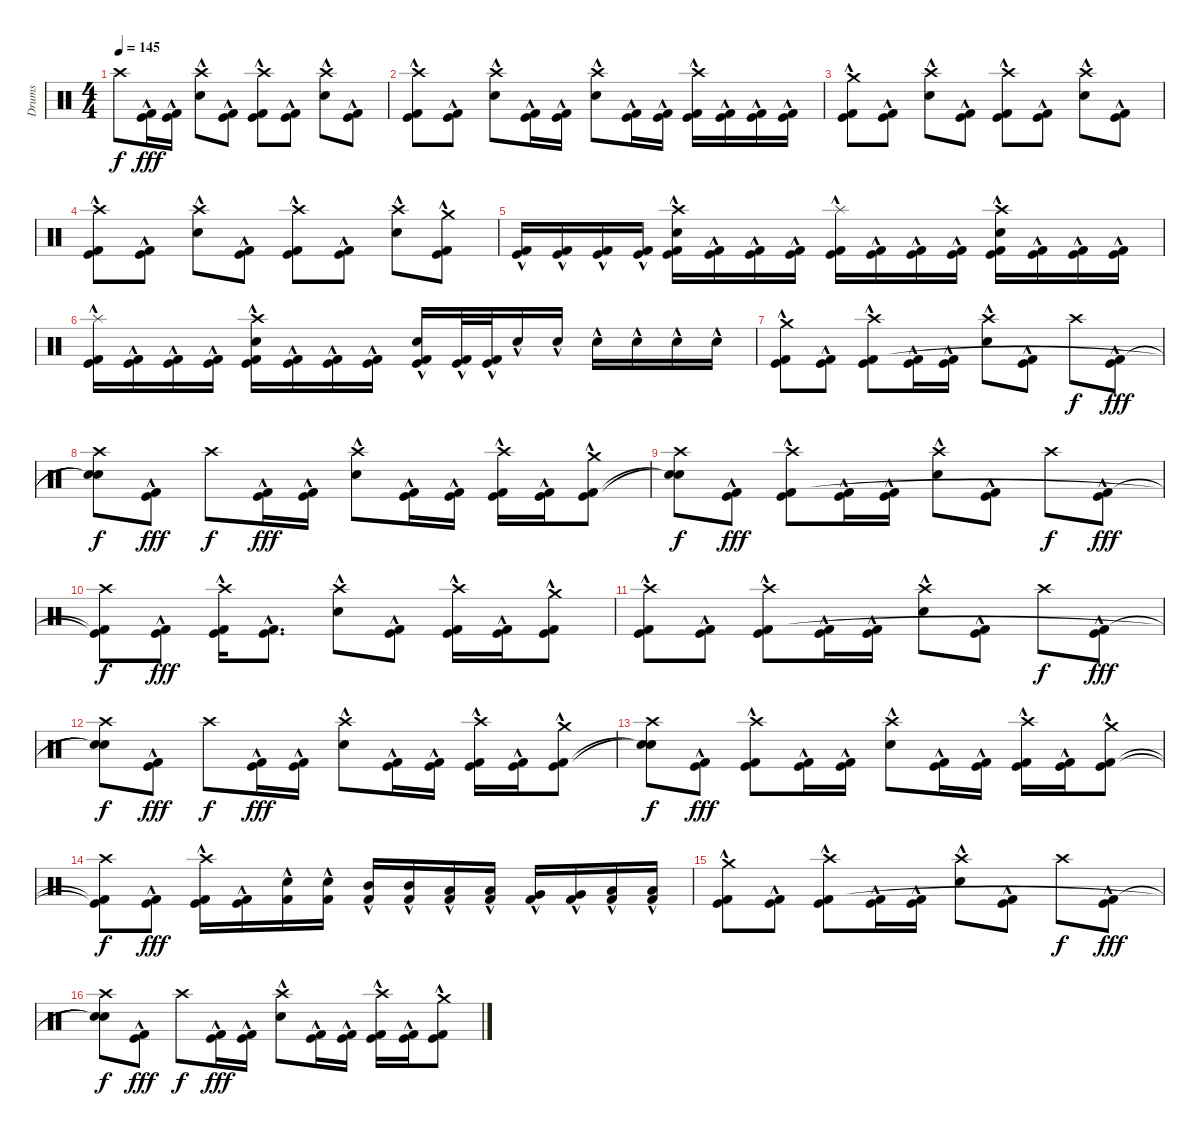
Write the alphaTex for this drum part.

\track ("Drums" "Drums") {instrument percussion}
\staff {score}
\articulation defaults
\ts (4 4)
\tempo 145
\clef neutral
\ks c "Crash high (hit)".8{dy f}
("Kick (hit)"{hac} "Kick (hit) 2"{hac}).16{dy fff} ("Kick (hit)"{hac} "Kick (hit) 2"{hac}).16 ("Crash high (hit)" "Electric Snare (hit)"{hac}).8 ("Kick (hit)"{hac} "Kick (hit) 2"{hac}).8 ("Crash high (hit)" "Kick (hit)"{hac} "Kick (hit) 2"{hac}).8 ("Kick (hit)"{hac} "Kick (hit) 2"{hac}).8 ("Crash high (hit)" "Electric Snare (hit)"{hac}).8 ("Kick (hit)"{hac} "Kick (hit) 2"{hac}).8 |
("Crash high (hit)" "Kick (hit)"{hac} "Kick (hit) 2"{hac}).8 ("Kick (hit)"{hac} "Kick (hit) 2"{hac}).8 ("Crash high (hit)" "Electric Snare (hit)"{hac}).8 ("Kick (hit)"{hac} "Kick (hit) 2"{hac}).16 ("Kick (hit)"{hac} "Kick (hit) 2"{hac}).16 ("Crash high (hit)" "Electric Snare (hit)"{hac}).8 ("Kick (hit)"{hac} "Kick (hit) 2"{hac}).16 ("Kick (hit)"{hac} "Kick (hit) 2"{hac}).16 ("Crash high (hit)" "Kick (hit)"{hac} "Kick (hit) 2"{hac}).16 ("Kick (hit)"{hac} "Kick (hit) 2"{hac}).16 ("Kick (hit)"{hac} "Kick (hit) 2"{hac}).16 ("Kick (hit)"{hac} "Kick (hit) 2"{hac}).16 |
("Crash medium (hit)" "Kick (hit)"{hac} "Kick (hit) 2"{hac}).8 ("Kick (hit)"{hac} "Kick (hit) 2"{hac}).8 ("Crash high (hit)" "Electric Snare (hit)"{hac}).8 ("Kick (hit)"{hac} "Kick (hit) 2"{hac}).8 ("Crash high (hit)" "Kick (hit)"{hac} "Kick (hit) 2"{hac}).8 ("Kick (hit)"{hac} "Kick (hit) 2"{hac}).8 ("Crash high (hit)" "Electric Snare (hit)"{hac}).8 ("Kick (hit)"{hac} "Kick (hit) 2"{hac}).8 |
("Crash high (hit)" "Kick (hit)"{hac} "Kick (hit) 2"{hac}).8 ("Kick (hit)"{hac} "Kick (hit) 2"{hac}).8 ("Crash high (hit)" "Electric Snare (hit)"{hac}).8 ("Kick (hit)"{hac} "Kick (hit) 2"{hac}).8 ("Crash high (hit)" "Kick (hit)"{hac} "Kick (hit) 2"{hac}).8 ("Kick (hit)"{hac} "Kick (hit) 2"{hac}).8 ("Crash high (hit)" "Electric Snare (hit)"{hac}).8 ("Crash medium (hit)" "Kick (hit)"{hac} "Kick (hit) 2"{hac}).8 |
("Kick (hit)"{hac} "Kick (hit) 2"{hac}).16 ("Kick (hit)"{hac} "Kick (hit) 2"{hac}).16 ("Kick (hit)"{hac} "Kick (hit) 2"{hac}).16 ("Kick (hit)"{hac} "Kick (hit) 2"{hac}).16 ("Crash high (hit)" "Electric Snare (hit)" "Kick (hit)"{hac} "Kick (hit) 2"{hac}).16 ("Kick (hit)"{hac} "Kick (hit) 2"{hac}).16 ("Kick (hit)"{hac} "Kick (hit) 2"{hac}).16 ("Kick (hit)"{hac} "Kick (hit) 2"{hac}).16 ("Splash (hit)" "Kick (hit)"{hac} "Kick (hit) 2"{hac}).16 ("Kick (hit)"{hac} "Kick (hit) 2"{hac}).16 ("Kick (hit)"{hac} "Kick (hit) 2"{hac}).16 ("Kick (hit)"{hac} "Kick (hit) 2"{hac}).16 ("Crash high (hit)" "Electric Snare (hit)"{hac} "Kick (hit)"{hac} "Kick (hit) 2"{hac}).16 ("Kick (hit)"{hac} "Kick (hit) 2"{hac}).16 ("Kick (hit)"{hac} "Kick (hit) 2"{hac}).16 ("Kick (hit)"{hac} "Kick (hit) 2"{hac}).16 |
("Splash (hit)" "Kick (hit)"{hac} "Kick (hit) 2"{hac}).16 ("Kick (hit)"{hac} "Kick (hit) 2"{hac}).16 ("Kick (hit)"{hac} "Kick (hit) 2"{hac}).16 ("Kick (hit)"{hac} "Kick (hit) 2"{hac}).16 ("Crash high (hit)" "Electric Snare (hit)" "Kick (hit)"{hac} "Kick (hit) 2"{hac}).16 ("Kick (hit)"{hac} "Kick (hit) 2"{hac}).16 ("Kick (hit)"{hac} "Kick (hit) 2"{hac}).16 ("Kick (hit)"{hac} "Kick (hit) 2"{hac}).16 ("Electric Snare (hit)"{hac} "Kick (hit)"{hac} "Kick (hit) 2"{hac}).16 ("Kick (hit)"{hac} "Kick (hit) 2"{hac}).32 ("Kick (hit)"{hac} "Kick (hit) 2"{hac}).32 "Electric Snare (hit)"{hac}.16 "Electric Snare (hit)"{hac}.16 "Electric Snare (hit)"{hac}.16 "Electric Snare (hit)"{hac}.16 "Electric Snare (hit)"{hac}.16 "Electric Snare (hit)"{hac}.16 |
("Crash medium (hit)" "Kick (hit)"{hac} "Kick (hit) 2"{hac}).8 ("Kick (hit)"{hac} "Kick (hit) 2"{hac}).8 ("Crash high (hit)" "Kick (hit)"{hac} "Kick (hit) 2"{hac}).8 ("Kick (hit)"{hac} "Kick (hit) 2"{hac}).16 ("Kick (hit)"{hac} "Kick (hit) 2"{hac}).16 ("Crash high (hit)" "Electric Snare (hit)"{hac}).8 ("Kick (hit)"{hac} "Kick (hit) 2"{hac}).8 "Crash high (hit)".8{dy f} ("Kick (hit)"{hac} "Kick (hit) 2"{hac}).8{dy fff} |
("Crash high (hit)" "Snare (hit)"{t} "Snare (hit)"{t}).8{dy f} ("Kick (hit)"{hac} "Kick (hit) 2"{hac}).8{dy fff} "Crash high (hit)".8{dy f} ("Kick (hit)"{hac} "Kick (hit) 2"{hac}).16{dy fff} ("Kick (hit)"{hac} "Kick (hit) 2"{hac}).16 ("Crash high (hit)" "Electric Snare (hit)"{hac}).8 ("Kick (hit)"{hac} "Kick (hit) 2"{hac}).16 ("Kick (hit)"{hac} "Kick (hit) 2"{hac}).16 ("Crash high (hit)" "Kick (hit)"{hac} "Kick (hit) 2"{hac}).16 ("Kick (hit)"{hac} "Kick (hit) 2"{hac}).16 ("Crash medium (hit)" "Kick (hit)"{hac} "Kick (hit) 2"{hac}).8 |
("Crash high (hit)" "Snare (hit)"{t} "Snare (hit)"{t}).8{dy f} ("Kick (hit)"{hac} "Kick (hit) 2"{hac}).8{dy fff} ("Crash high (hit)" "Kick (hit)"{hac} "Kick (hit) 2"{hac}).8 ("Kick (hit)"{hac} "Kick (hit) 2"{hac}).16 ("Kick (hit)"{hac} "Kick (hit) 2"{hac}).16 ("Crash high (hit)" "Electric Snare (hit)"{hac}).8 ("Kick (hit)"{hac} "Kick (hit) 2"{hac}).8 "Crash high (hit)".8{dy f} ("Kick (hit)"{hac} "Kick (hit) 2"{hac}).8{dy fff} |
("Crash high (hit)" "Kick (hit)"{t} "Kick (hit) 2"{t}).8{dy f} ("Kick (hit)"{hac} "Kick (hit) 2"{hac}).8{dy fff} ("Crash high (hit)" "Kick (hit)"{hac} "Kick (hit) 2"{hac}).16 ("Kick (hit)"{hac} "Kick (hit) 2"{hac}).8{d} ("Crash high (hit)" "Electric Snare (hit)"{hac}).8 ("Kick (hit)"{hac} "Kick (hit) 2"{hac}).8 ("Crash high (hit)" "Kick (hit)"{hac} "Kick (hit) 2"{hac}).16 ("Kick (hit)"{hac} "Kick (hit) 2"{hac}).16 ("Crash medium (hit)" "Kick (hit)"{hac} "Kick (hit) 2"{hac}).8 |
("Crash high (hit)" "Kick (hit)"{hac} "Kick (hit) 2"{hac}).8 ("Kick (hit)"{hac} "Kick (hit) 2"{hac}).8 ("Crash high (hit)" "Kick (hit)"{hac} "Kick (hit) 2"{hac}).8 ("Kick (hit)"{hac} "Kick (hit) 2"{hac}).16 ("Kick (hit)"{hac} "Kick (hit) 2"{hac}).16 ("Crash high (hit)" "Electric Snare (hit)"{hac}).8 ("Kick (hit)"{hac} "Kick (hit) 2"{hac}).8 "Crash high (hit)".8{dy f} ("Kick (hit)"{hac} "Kick (hit) 2"{hac}).8{dy fff} |
("Crash high (hit)" "Snare (hit)"{t} "Snare (hit)"{t}).8{dy f} ("Kick (hit)"{hac} "Kick (hit) 2"{hac}).8{dy fff} "Crash high (hit)".8{dy f} ("Kick (hit)"{hac} "Kick (hit) 2"{hac}).16{dy fff} ("Kick (hit)"{hac} "Kick (hit) 2"{hac}).16 ("Crash high (hit)" "Electric Snare (hit)"{hac}).8 ("Kick (hit)"{hac} "Kick (hit) 2"{hac}).16 ("Kick (hit)"{hac} "Kick (hit) 2"{hac}).16 ("Crash high (hit)" "Kick (hit)"{hac} "Kick (hit) 2"{hac}).16 ("Kick (hit)"{hac} "Kick (hit) 2"{hac}).16 ("Crash medium (hit)" "Kick (hit)"{hac} "Kick (hit) 2"{hac}).8 |
("Crash high (hit)" "Snare (hit)"{t} "Snare (hit)"{t}).8{dy f} ("Kick (hit)"{hac} "Kick (hit) 2"{hac}).8{dy fff} ("Crash high (hit)" "Kick (hit)"{hac} "Kick (hit) 2"{hac}).8 ("Kick (hit)"{hac} "Kick (hit) 2"{hac}).16 ("Kick (hit)"{hac} "Kick (hit) 2"{hac}).16 ("Crash high (hit)" "Electric Snare (hit)"{hac}).8 ("Kick (hit)"{hac} "Kick (hit) 2"{hac}).16 ("Kick (hit)"{hac} "Kick (hit) 2"{hac}).16 ("Crash high (hit)" "Kick (hit)"{hac} "Kick (hit) 2"{hac}).16 ("Kick (hit)"{hac} "Kick (hit) 2"{hac}).16 ("Crash medium (hit)" "Kick (hit)"{hac} "Kick (hit) 2"{hac}).8 |
("Crash high (hit)" "Kick (hit)"{t} "Kick (hit) 2"{t}).8{dy f} ("Kick (hit)"{hac} "Kick (hit) 2"{hac}).8{dy fff} ("Crash high (hit)" "Kick (hit)"{hac} "Kick (hit) 2"{hac}).16 ("Kick (hit)"{hac} "Kick (hit) 2"{hac}).16 ("Electric Snare (hit)"{hac} "Kick (hit) 2").16 ("Electric Snare (hit)"{hac} "Kick (hit) 2").16 ("Mid Tom (hit)"{hac} "Kick (hit) 2").16 ("Mid Tom (hit)"{hac} "Kick (hit) 2").16 ("Low Tom (hit)"{hac} "Kick (hit) 2").16 ("Low Tom (hit)"{hac} "Kick (hit) 2").16 ("Very Low Tom (hit)"{hac} "Kick (hit) 2").16 ("Very Low Tom (hit)"{hac} "Kick (hit) 2").16 ("Low Floor Tom (hit)"{hac} "Kick (hit) 2").16 ("Low Floor Tom (hit)"{hac} "Kick (hit) 2").16 |
("Crash medium (hit)" "Kick (hit)"{hac} "Kick (hit) 2"{hac}).8 ("Kick (hit)"{hac} "Kick (hit) 2"{hac}).8 ("Crash high (hit)" "Kick (hit)"{hac} "Kick (hit) 2"{hac}).8 ("Kick (hit)"{hac} "Kick (hit) 2"{hac}).16 ("Kick (hit)"{hac} "Kick (hit) 2"{hac}).16 ("Crash high (hit)" "Electric Snare (hit)"{hac}).8 ("Kick (hit)"{hac} "Kick (hit) 2"{hac}).8 "Crash high (hit)".8{dy f} ("Kick (hit)"{hac} "Kick (hit) 2"{hac}).8{dy fff} |
("Crash high (hit)" "Snare (hit)"{t} "Snare (hit)"{t}).8{dy f} ("Kick (hit)"{hac} "Kick (hit) 2"{hac}).8{dy fff} "Crash high (hit)".8{dy f} ("Kick (hit)"{hac} "Kick (hit) 2"{hac}).16{dy fff} ("Kick (hit)"{hac} "Kick (hit) 2"{hac}).16 ("Crash high (hit)" "Electric Snare (hit)"{hac}).8 ("Kick (hit)"{hac} "Kick (hit) 2"{hac}).16 ("Kick (hit)"{hac} "Kick (hit) 2"{hac}).16 ("Crash high (hit)" "Kick (hit)"{hac} "Kick (hit) 2"{hac}).16 ("Kick (hit)"{hac} "Kick (hit) 2"{hac}).16 ("Crash medium (hit)" "Kick (hit)"{hac} "Kick (hit) 2"{hac}).8
